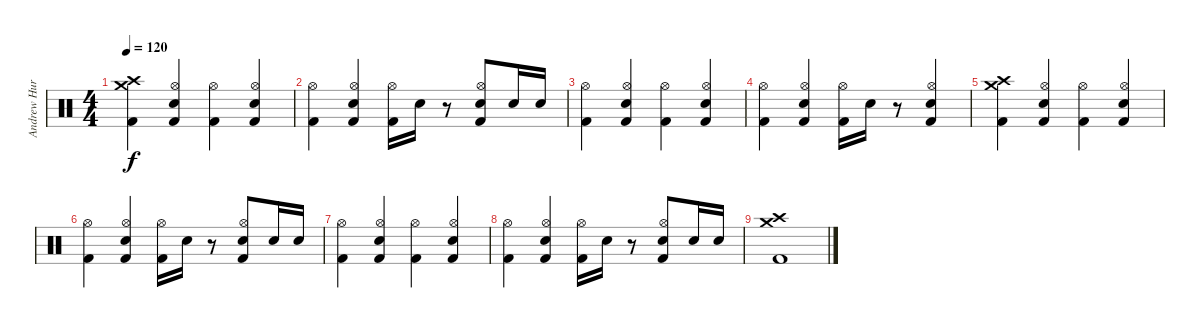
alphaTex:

\track ("Andrew Hurley (Drums)" "Andrew Hur") {instrument percussion}
\staff {score}
\articulation defaults
\ts (4 4)
\tempo 120
\clef neutral
\ks c
("Crash high (hit)" "Crash medium (hit)" "Kick (hit) 2").4{dy f} ("Hi-Hat (open)" "Snare (hit) 2" "Kick (hit) 2").4 ("Hi-Hat (open)" "Kick (hit) 2").4 ("Hi-Hat (open)" "Snare (hit) 2" "Kick (hit) 2").4 |
("Hi-Hat (open)" "Kick (hit) 2").4 ("Hi-Hat (open)" "Snare (hit) 2" "Kick (hit) 2").4 ("Hi-Hat (open)" "Kick (hit) 2").16 "Snare (hit) 2".16 r.8 ("Hi-Hat (open)" "Snare (hit) 2" "Kick (hit) 2").8 "Snare (hit) 2".16 "Snare (hit) 2".16 |
("Hi-Hat (open)" "Kick (hit) 2").4 ("Hi-Hat (open)" "Snare (hit) 2" "Kick (hit) 2").4 ("Hi-Hat (open)" "Kick (hit) 2").4 ("Hi-Hat (open)" "Snare (hit) 2" "Kick (hit) 2").4 |
("Hi-Hat (open)" "Kick (hit) 2").4 ("Hi-Hat (open)" "Snare (hit) 2" "Kick (hit) 2").4 ("Hi-Hat (open)" "Kick (hit) 2").16 "Snare (hit) 2".16 r.8 ("Hi-Hat (open)" "Snare (hit) 2" "Kick (hit) 2").4 |
("Crash high (hit)" "Crash medium (hit)" "Kick (hit) 2").4 ("Hi-Hat (open)" "Snare (hit) 2" "Kick (hit) 2").4 ("Hi-Hat (open)" "Kick (hit) 2").4 ("Hi-Hat (open)" "Snare (hit) 2" "Kick (hit) 2").4 |
("Hi-Hat (open)" "Kick (hit) 2").4 ("Hi-Hat (open)" "Snare (hit) 2" "Kick (hit) 2").4 ("Hi-Hat (open)" "Kick (hit) 2").16 "Snare (hit) 2".16 r.8 ("Hi-Hat (open)" "Snare (hit) 2" "Kick (hit) 2").8 "Snare (hit) 2".16 "Snare (hit) 2".16 |
("Hi-Hat (open)" "Kick (hit) 2").4 ("Hi-Hat (open)" "Snare (hit) 2" "Kick (hit) 2").4 ("Hi-Hat (open)" "Kick (hit) 2").4 ("Hi-Hat (open)" "Snare (hit) 2" "Kick (hit) 2").4 |
("Hi-Hat (open)" "Kick (hit) 2").4 ("Hi-Hat (open)" "Snare (hit) 2" "Kick (hit) 2").4 ("Hi-Hat (open)" "Kick (hit) 2").16 "Snare (hit) 2".16 r.8 ("Hi-Hat (open)" "Snare (hit) 2" "Kick (hit) 2").8 "Snare (hit) 2".16 "Snare (hit) 2".16 |
("Crash high (hit)" "Crash medium (hit)" "Kick (hit) 2").1
